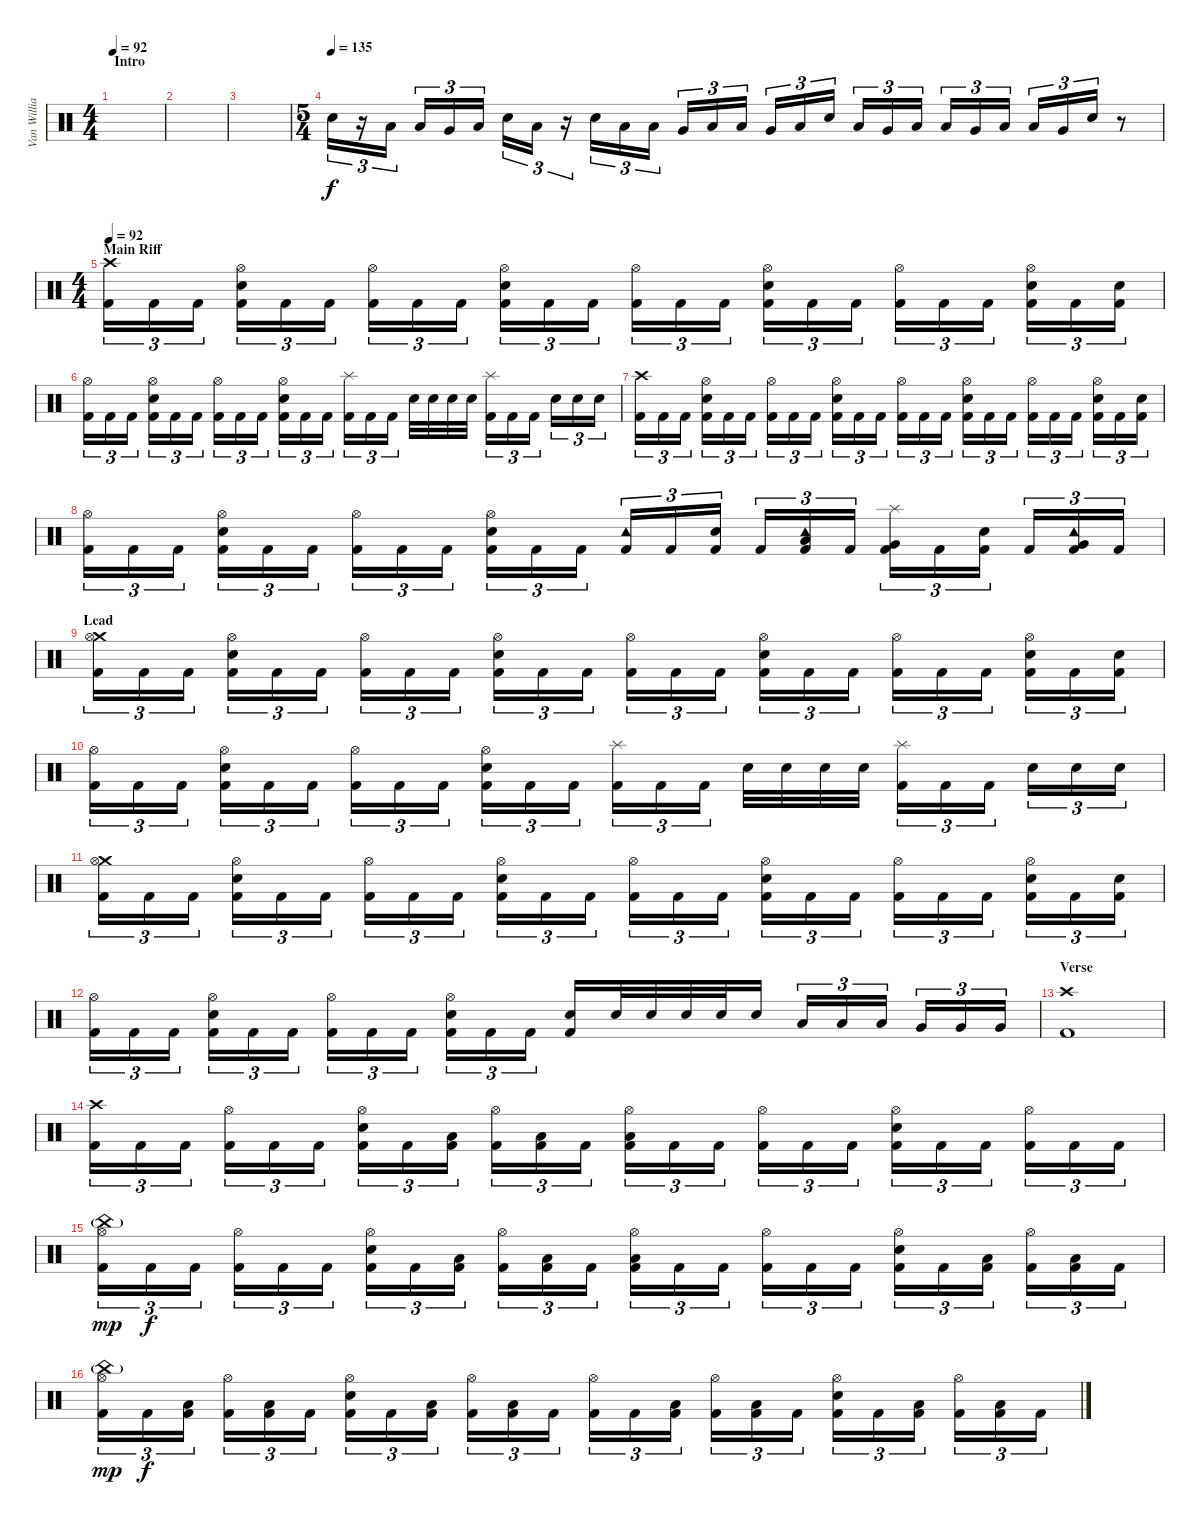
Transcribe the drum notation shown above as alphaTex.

\track ("Van Williams" "Van Willia") {instrument percussion}
\staff {score}
\articulation defaults
\ts (4 4)
\section ("" "Intro")
\tempo 92
\clef neutral
\ks c
|
|
|
\ts (5 4)
\tempo (135)
"Electric Snare (hit)".16{tu (3 2)} r.16{tu (3 2)} "Low Tom (hit)".16{tu (3 2)} "Low Tom (hit)".16{tu (3 2)} "Very Low Tom (hit)".16{tu (3 2)} "Low Floor Tom (hit)".16{tu (3 2)} "Electric Snare (hit)".16{tu (3 2)} "Low Tom (hit)".16{tu (3 2)} r.16{tu (3 2)} "Electric Snare (hit)".16{tu (3 2)} "Low Tom (hit)".16{tu (3 2)} "Low Tom (hit)".16{tu (3 2)} "Very Low Tom (hit)".16{tu (3 2)} "Low Floor Tom (hit)".16{tu (3 2)} "Low Tom (hit)".16{tu (3 2)} "Very Low Tom (hit)".16{tu (3 2)} "Low Floor Tom (hit)".16{tu (3 2)} "Electric Snare (hit)".16{tu (3 2)} "Low Tom (hit)".16{tu (3 2)} "Very Low Tom (hit)".16{tu (3 2)} "Low Floor Tom (hit)".16{tu (3 2)} "Low Tom (hit)".16{tu (3 2)} "Very Low Tom (hit)".16{tu (3 2)} "Low Floor Tom (hit)".16{tu (3 2)} "Low Tom (hit)".16{tu (3 2)} "Very Low Tom (hit)".16{tu (3 2)} "Electric Snare (hit)".16{tu (3 2)} r.8 |
\ts (4 4)
\section ("" "Main Riff")
\tempo 92
("Crash high (hit)" "Kick (hit) 2").16{tu (3 2)} "Kick (hit) 2".16{tu (3 2)} "Kick (hit) 2".16{tu (3 2)} ("Hi-Hat (open)" "Electric Snare (hit)" "Kick (hit) 2").16{tu (3 2)} "Kick (hit) 2".16{tu (3 2)} "Kick (hit) 2".16{tu (3 2)} ("Hi-Hat (open)" "Kick (hit) 2").16{tu (3 2)} "Kick (hit) 2".16{tu (3 2)} "Kick (hit) 2".16{tu (3 2)} ("Hi-Hat (open)" "Electric Snare (hit)" "Kick (hit) 2").16{tu (3 2)} "Kick (hit) 2".16{tu (3 2)} "Kick (hit) 2".16{tu (3 2)} ("Hi-Hat (open)" "Kick (hit) 2").16{tu (3 2)} "Kick (hit) 2".16{tu (3 2)} "Kick (hit) 2".16{tu (3 2)} ("Hi-Hat (open)" "Electric Snare (hit)" "Kick (hit) 2").16{tu (3 2)} "Kick (hit) 2".16{tu (3 2)} "Kick (hit) 2".16{tu (3 2)} ("Hi-Hat (open)" "Kick (hit) 2").16{tu (3 2)} "Kick (hit) 2".16{tu (3 2)} "Kick (hit) 2".16{tu (3 2)} ("Hi-Hat (open)" "Electric Snare (hit)" "Kick (hit) 2").16{tu (3 2)} "Kick (hit) 2".16{tu (3 2)} ("Electric Snare (hit)" "Kick (hit) 2").16{tu (3 2)} |
("Hi-Hat (open)" "Kick (hit) 2").16{tu (3 2)} "Kick (hit) 2".16{tu (3 2)} "Kick (hit) 2".16{tu (3 2)} ("Hi-Hat (open)" "Electric Snare (hit)" "Kick (hit) 2").16{tu (3 2)} "Kick (hit) 2".16{tu (3 2)} "Kick (hit) 2".16{tu (3 2)} ("Hi-Hat (open)" "Kick (hit) 2").16{tu (3 2)} "Kick (hit) 2".16{tu (3 2)} "Kick (hit) 2".16{tu (3 2)} ("Hi-Hat (open)" "Electric Snare (hit)" "Kick (hit) 2").16{tu (3 2)} "Kick (hit) 2".16{tu (3 2)} "Kick (hit) 2".16{tu (3 2)} ("Splash (hit)" "Kick (hit) 2").16{tu (3 2)} "Kick (hit) 2".16{tu (3 2)} "Kick (hit) 2".16{tu (3 2)} "Electric Snare (hit)".32 "Electric Snare (hit)".32 "Electric Snare (hit)".32 "Electric Snare (hit)".32 ("Splash (hit)" "Kick (hit) 2").16{tu (3 2)} "Kick (hit) 2".16{tu (3 2)} "Kick (hit) 2".16{tu (3 2)} "Electric Snare (hit)".16{tu (3 2)} "Electric Snare (hit)".16{tu (3 2)} "Electric Snare (hit)".16{tu (3 2)} |
("Crash high (hit)" "Kick (hit) 2").16{tu (3 2)} "Kick (hit) 2".16{tu (3 2)} "Kick (hit) 2".16{tu (3 2)} ("Hi-Hat (open)" "Electric Snare (hit)" "Kick (hit) 2").16{tu (3 2)} "Kick (hit) 2".16{tu (3 2)} "Kick (hit) 2".16{tu (3 2)} ("Hi-Hat (open)" "Kick (hit) 2").16{tu (3 2)} "Kick (hit) 2".16{tu (3 2)} "Kick (hit) 2".16{tu (3 2)} ("Hi-Hat (open)" "Electric Snare (hit)" "Kick (hit) 2").16{tu (3 2)} "Kick (hit) 2".16{tu (3 2)} "Kick (hit) 2".16{tu (3 2)} ("Hi-Hat (open)" "Kick (hit) 2").16{tu (3 2)} "Kick (hit) 2".16{tu (3 2)} "Kick (hit) 2".16{tu (3 2)} ("Hi-Hat (open)" "Electric Snare (hit)" "Kick (hit) 2").16{tu (3 2)} "Kick (hit) 2".16{tu (3 2)} "Kick (hit) 2".16{tu (3 2)} ("Hi-Hat (open)" "Kick (hit) 2").16{tu (3 2)} "Kick (hit) 2".16{tu (3 2)} "Kick (hit) 2".16{tu (3 2)} ("Hi-Hat (open)" "Electric Snare (hit)" "Kick (hit) 2").16{tu (3 2)} "Kick (hit) 2".16{tu (3 2)} ("Electric Snare (hit)" "Kick (hit) 2").16{tu (3 2)} |
("Hi-Hat (open)" "Kick (hit) 2").16{tu (3 2)} "Kick (hit) 2".16{tu (3 2)} "Kick (hit) 2".16{tu (3 2)} ("Hi-Hat (open)" "Electric Snare (hit)" "Kick (hit) 2").16{tu (3 2)} "Kick (hit) 2".16{tu (3 2)} "Kick (hit) 2".16{tu (3 2)} ("Hi-Hat (open)" "Kick (hit) 2").16{tu (3 2)} "Kick (hit) 2".16{tu (3 2)} "Kick (hit) 2".16{tu (3 2)} ("Hi-Hat (open)" "Electric Snare (hit)" "Kick (hit) 2").16{tu (3 2)} "Kick (hit) 2".16{tu (3 2)} "Kick (hit) 2".16{tu (3 2)} ("Tambourine (hit)" "Kick (hit) 2").16{tu (3 2)} "Kick (hit) 2".16{tu (3 2)} ("Electric Snare (hit)" "Kick (hit) 2").16{tu (3 2)} "Kick (hit) 2".16{tu (3 2)} ("Tambourine (hit)" "Low Tom (hit)" "Kick (hit) 2").16{tu (3 2)} "Kick (hit) 2".16{tu (3 2)} ("Splash (hit)" "Very Low Tom (hit)" "Kick (hit) 2").16{tu (3 2)} "Kick (hit) 2".16{tu (3 2)} ("Electric Snare (hit)" "Kick (hit) 2").16{tu (3 2)} "Kick (hit) 2".16{tu (3 2)} ("Tambourine (hit)" "Very Low Tom (hit)" "Kick (hit) 2").16{tu (3 2)} "Kick (hit) 2".16{tu (3 2)} |
\section ("" "Lead")
("Crash medium (hit)" "Hi-Hat (open)" "Kick (hit) 2").16{tu (3 2)} "Kick (hit) 2".16{tu (3 2)} "Kick (hit) 2".16{tu (3 2)} ("Hi-Hat (open)" "Electric Snare (hit)" "Kick (hit) 2").16{tu (3 2)} "Kick (hit) 2".16{tu (3 2)} "Kick (hit) 2".16{tu (3 2)} ("Hi-Hat (open)" "Kick (hit) 2").16{tu (3 2)} "Kick (hit) 2".16{tu (3 2)} "Kick (hit) 2".16{tu (3 2)} ("Hi-Hat (open)" "Electric Snare (hit)" "Kick (hit) 2").16{tu (3 2)} "Kick (hit) 2".16{tu (3 2)} "Kick (hit) 2".16{tu (3 2)} ("Hi-Hat (open)" "Kick (hit) 2").16{tu (3 2)} "Kick (hit) 2".16{tu (3 2)} "Kick (hit) 2".16{tu (3 2)} ("Hi-Hat (open)" "Electric Snare (hit)" "Kick (hit) 2").16{tu (3 2)} "Kick (hit) 2".16{tu (3 2)} "Kick (hit) 2".16{tu (3 2)} ("Hi-Hat (open)" "Kick (hit) 2").16{tu (3 2)} "Kick (hit) 2".16{tu (3 2)} "Kick (hit) 2".16{tu (3 2)} ("Hi-Hat (open)" "Electric Snare (hit)" "Kick (hit) 2").16{tu (3 2)} "Kick (hit) 2".16{tu (3 2)} ("Electric Snare (hit)" "Kick (hit) 2").16{tu (3 2)} |
("Hi-Hat (open)" "Kick (hit) 2").16{tu (3 2)} "Kick (hit) 2".16{tu (3 2)} "Kick (hit) 2".16{tu (3 2)} ("Hi-Hat (open)" "Electric Snare (hit)" "Kick (hit) 2").16{tu (3 2)} "Kick (hit) 2".16{tu (3 2)} "Kick (hit) 2".16{tu (3 2)} ("Hi-Hat (open)" "Kick (hit) 2").16{tu (3 2)} "Kick (hit) 2".16{tu (3 2)} "Kick (hit) 2".16{tu (3 2)} ("Hi-Hat (open)" "Electric Snare (hit)" "Kick (hit) 2").16{tu (3 2)} "Kick (hit) 2".16{tu (3 2)} "Kick (hit) 2".16{tu (3 2)} ("Splash (hit)" "Kick (hit) 2").16{tu (3 2)} "Kick (hit) 2".16{tu (3 2)} "Kick (hit) 2".16{tu (3 2)} "Electric Snare (hit)".32 "Electric Snare (hit)".32 "Electric Snare (hit)".32 "Electric Snare (hit)".32 ("Splash (hit)" "Kick (hit) 2").16{tu (3 2)} "Kick (hit) 2".16{tu (3 2)} "Kick (hit) 2".16{tu (3 2)} "Electric Snare (hit)".16{tu (3 2)} "Electric Snare (hit)".16{tu (3 2)} "Electric Snare (hit)".16{tu (3 2)} |
("Crash medium (hit)" "Hi-Hat (open)" "Kick (hit) 2").16{tu (3 2)} "Kick (hit) 2".16{tu (3 2)} "Kick (hit) 2".16{tu (3 2)} ("Hi-Hat (open)" "Electric Snare (hit)" "Kick (hit) 2").16{tu (3 2)} "Kick (hit) 2".16{tu (3 2)} "Kick (hit) 2".16{tu (3 2)} ("Hi-Hat (open)" "Kick (hit) 2").16{tu (3 2)} "Kick (hit) 2".16{tu (3 2)} "Kick (hit) 2".16{tu (3 2)} ("Hi-Hat (open)" "Electric Snare (hit)" "Kick (hit) 2").16{tu (3 2)} "Kick (hit) 2".16{tu (3 2)} "Kick (hit) 2".16{tu (3 2)} ("Hi-Hat (open)" "Kick (hit) 2").16{tu (3 2)} "Kick (hit) 2".16{tu (3 2)} "Kick (hit) 2".16{tu (3 2)} ("Hi-Hat (open)" "Electric Snare (hit)" "Kick (hit) 2").16{tu (3 2)} "Kick (hit) 2".16{tu (3 2)} "Kick (hit) 2".16{tu (3 2)} ("Hi-Hat (open)" "Kick (hit) 2").16{tu (3 2)} "Kick (hit) 2".16{tu (3 2)} "Kick (hit) 2".16{tu (3 2)} ("Hi-Hat (open)" "Electric Snare (hit)" "Kick (hit) 2").16{tu (3 2)} "Kick (hit) 2".16{tu (3 2)} ("Electric Snare (hit)" "Kick (hit) 2").16{tu (3 2)} |
("Hi-Hat (open)" "Kick (hit) 2").16{tu (3 2)} "Kick (hit) 2".16{tu (3 2)} "Kick (hit) 2".16{tu (3 2)} ("Hi-Hat (open)" "Electric Snare (hit)" "Kick (hit) 2").16{tu (3 2)} "Kick (hit) 2".16{tu (3 2)} "Kick (hit) 2".16{tu (3 2)} ("Hi-Hat (open)" "Kick (hit) 2").16{tu (3 2)} "Kick (hit) 2".16{tu (3 2)} "Kick (hit) 2".16{tu (3 2)} ("Hi-Hat (open)" "Electric Snare (hit)" "Kick (hit) 2").16{tu (3 2)} "Kick (hit) 2".16{tu (3 2)} "Kick (hit) 2".16{tu (3 2)} ("Electric Snare (hit)" "Kick (hit) 2").16 "Electric Snare (hit)".32 "Electric Snare (hit)".32 "Electric Snare (hit)".32 "Electric Snare (hit)".32 "Electric Snare (hit)".16 "Low Tom (hit)".16{tu (3 2)} "Low Tom (hit)".16{tu (3 2)} "Low Tom (hit)".16{tu (3 2)} "Very Low Tom (hit)".16{tu (3 2)} "Very Low Tom (hit)".16{tu (3 2)} "Very Low Tom (hit)".16{tu (3 2)} |
\section ("" "Verse")
("Crash high (hit)" "Kick (hit) 2").1 |
("Crash high (hit)" "Kick (hit) 2").16{tu (3 2)} "Kick (hit) 2".16{tu (3 2)} "Kick (hit) 2".16{tu (3 2)} ("Hi-Hat (open)" "Kick (hit) 2").16{tu (3 2)} "Kick (hit) 2".16{tu (3 2)} "Kick (hit) 2".16{tu (3 2)} ("Hi-Hat (open)" "Electric Snare (hit)" "Kick (hit) 2").16{tu (3 2)} "Kick (hit) 2".16{tu (3 2)} ("Low Floor Tom (hit)" "Kick (hit) 2").16{tu (3 2)} ("Hi-Hat (open)" "Kick (hit) 2").16{tu (3 2)} ("Low Floor Tom (hit)" "Kick (hit) 2").16{tu (3 2)} "Kick (hit) 2".16{tu (3 2)} ("Hi-Hat (open)" "Low Floor Tom (hit)" "Kick (hit) 2").16{tu (3 2)} "Kick (hit) 2".16{tu (3 2)} "Kick (hit) 2".16{tu (3 2)} ("Hi-Hat (open)" "Kick (hit) 2").16{tu (3 2)} "Kick (hit) 2".16{tu (3 2)} "Kick (hit) 2".16{tu (3 2)} ("Hi-Hat (open)" "Electric Snare (hit)" "Kick (hit) 2").16{tu (3 2)} "Kick (hit) 2".16{tu (3 2)} "Kick (hit) 2".16{tu (3 2)} ("Hi-Hat (open)" "Kick (hit) 2").16{tu (3 2)} "Kick (hit) 2".16{tu (3 2)} "Kick (hit) 2".16{tu (3 2)} |
("China (hit)"{g} "Hi-Hat (open)" "Kick (hit) 2").16{tu (3 2) dy mp} "Kick (hit) 2".16{tu (3 2) dy f} "Kick (hit) 2".16{tu (3 2)} ("Hi-Hat (open)" "Kick (hit) 2").16{tu (3 2)} "Kick (hit) 2".16{tu (3 2)} "Kick (hit) 2".16{tu (3 2)} ("Hi-Hat (open)" "Electric Snare (hit)" "Kick (hit) 2").16{tu (3 2)} "Kick (hit) 2".16{tu (3 2)} ("Low Floor Tom (hit)" "Kick (hit) 2").16{tu (3 2)} ("Hi-Hat (open)" "Kick (hit) 2").16{tu (3 2)} ("Low Floor Tom (hit)" "Kick (hit) 2").16{tu (3 2)} "Kick (hit) 2".16{tu (3 2)} ("Hi-Hat (open)" "Low Floor Tom (hit)" "Kick (hit) 2").16{tu (3 2)} "Kick (hit) 2".16{tu (3 2)} "Kick (hit) 2".16{tu (3 2)} ("Hi-Hat (open)" "Kick (hit) 2").16{tu (3 2)} "Kick (hit) 2".16{tu (3 2)} "Kick (hit) 2".16{tu (3 2)} ("Hi-Hat (open)" "Electric Snare (hit)" "Kick (hit) 2").16{tu (3 2)} "Kick (hit) 2".16{tu (3 2)} ("Low Floor Tom (hit)" "Kick (hit) 2").16{tu (3 2)} ("Hi-Hat (open)" "Kick (hit) 2").16{tu (3 2)} ("Low Floor Tom (hit)" "Kick (hit) 2").16{tu (3 2)} "Kick (hit) 2".16{tu (3 2)} |
("China (hit)"{g} "Hi-Hat (open)" "Kick (hit) 2").16{tu (3 2) dy mp} "Kick (hit) 2".16{tu (3 2) dy f} ("Low Floor Tom (hit)" "Kick (hit) 2").16{tu (3 2)} ("Hi-Hat (open)" "Kick (hit) 2").16{tu (3 2)} ("Low Floor Tom (hit)" "Kick (hit) 2").16{tu (3 2)} "Kick (hit) 2".16{tu (3 2)} ("Hi-Hat (open)" "Electric Snare (hit)" "Kick (hit) 2").16{tu (3 2)} "Kick (hit) 2".16{tu (3 2)} ("Low Floor Tom (hit)" "Kick (hit) 2").16{tu (3 2)} ("Hi-Hat (open)" "Kick (hit) 2").16{tu (3 2)} ("Low Floor Tom (hit)" "Kick (hit) 2").16{tu (3 2)} "Kick (hit) 2".16{tu (3 2)} ("Hi-Hat (open)" "Kick (hit) 2").16{tu (3 2)} "Kick (hit) 2".16{tu (3 2)} ("Low Floor Tom (hit)" "Kick (hit) 2").16{tu (3 2)} ("Hi-Hat (open)" "Kick (hit) 2").16{tu (3 2)} ("Low Floor Tom (hit)" "Kick (hit) 2").16{tu (3 2)} "Kick (hit) 2".16{tu (3 2)} ("Hi-Hat (open)" "Electric Snare (hit)" "Kick (hit) 2").16{tu (3 2)} "Kick (hit) 2".16{tu (3 2)} ("Low Floor Tom (hit)" "Kick (hit) 2").16{tu (3 2)} ("Hi-Hat (open)" "Kick (hit) 2").16{tu (3 2)} ("Low Floor Tom (hit)" "Kick (hit) 2").16{tu (3 2)} "Kick (hit) 2".16{tu (3 2)}
